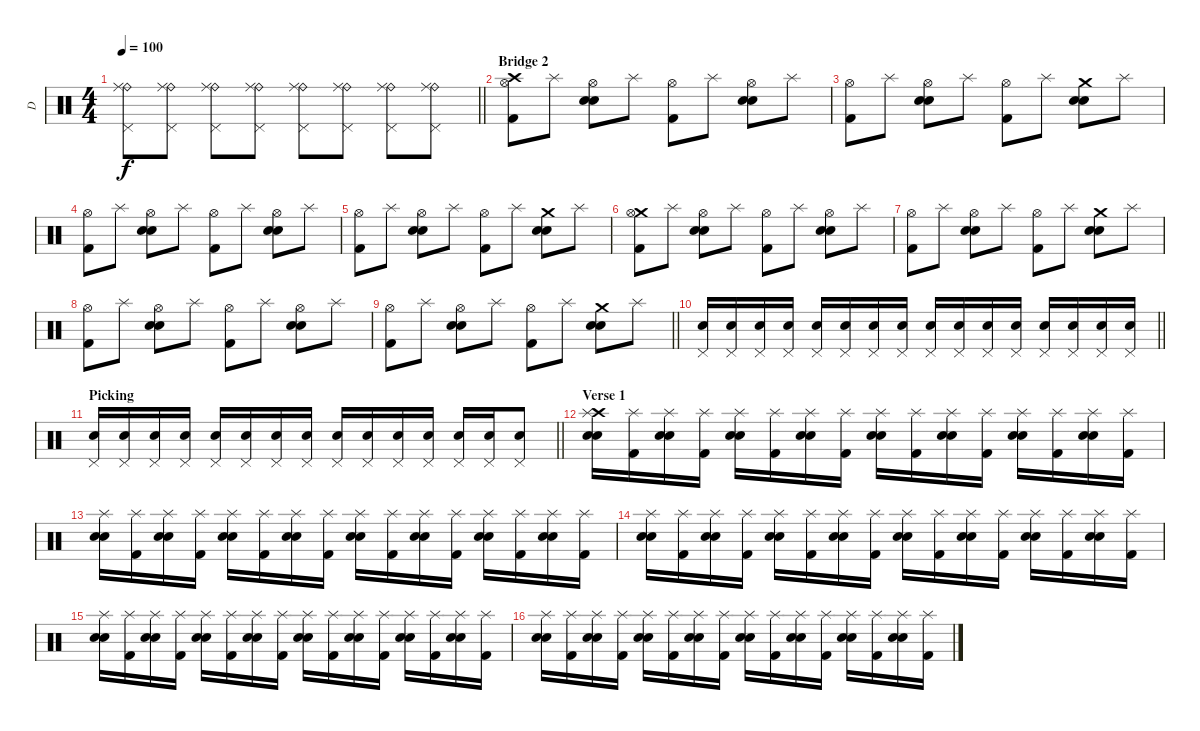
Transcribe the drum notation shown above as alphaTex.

\track ("D" "D") {instrument percussion}
\staff {score}
\articulation defaults
\ts (4 4)
\tempo 100
\clef neutral
\barLineRight lightlight
\ks c
("Ride (bell)" "Pedal Hi-Hat (hit)" "Ride (middle)").8{dy f} ("Ride (bell)" "Pedal Hi-Hat (hit)" "Ride (middle)").8 ("Ride (bell)" "Pedal Hi-Hat (hit)" "Ride (middle)").8 ("Ride (bell)" "Pedal Hi-Hat (hit)" "Ride (middle)").8 ("Ride (bell)" "Pedal Hi-Hat (hit)" "Ride (middle)").8 ("Ride (bell)" "Pedal Hi-Hat (hit)" "Ride (middle)").8 ("Ride (bell)" "Pedal Hi-Hat (hit)" "Ride (middle)").8 ("Ride (bell)" "Pedal Hi-Hat (hit)" "Ride (middle)").8 |
\section ("" "Bridge 2")
("Crash high (hit)" "Kick (hit) 2" "Hi-Hat (open)").8 "Splash (hit)".8 ("Electric Snare (hit)" "Electric Snare (hit)" "Hi-Hat (open)").8 "Splash (hit)".8 ("Kick (hit) 2" "Hi-Hat (open)").8 "Splash (hit)".8 ("Electric Snare (hit)" "Electric Snare (hit)" "Hi-Hat (open)").8 "Splash (hit)".8 |
("Kick (hit) 2" "Hi-Hat (open)").8 "Splash (hit)".8 ("Electric Snare (hit)" "Electric Snare (hit)" "Hi-Hat (open)").8 "Splash (hit)".8 ("Kick (hit) 2" "Hi-Hat (open)").8 "Splash (hit)".8 ("Crash medium (hit)" "Electric Snare (hit)" "Electric Snare (hit)").8 "Splash (hit)".8 |
("Kick (hit) 2" "Hi-Hat (open)").8 "Splash (hit)".8 ("Electric Snare (hit)" "Electric Snare (hit)" "Hi-Hat (open)").8 "Splash (hit)".8 ("Kick (hit) 2" "Hi-Hat (open)").8 "Splash (hit)".8 ("Electric Snare (hit)" "Electric Snare (hit)" "Hi-Hat (open)").8 "Splash (hit)".8 |
("Kick (hit) 2" "Hi-Hat (open)").8 "Splash (hit)".8 ("Electric Snare (hit)" "Electric Snare (hit)" "Hi-Hat (open)").8 "Splash (hit)".8 ("Kick (hit) 2" "Hi-Hat (open)").8 "Splash (hit)".8 ("Crash medium (hit)" "Electric Snare (hit)" "Electric Snare (hit)").8 "Splash (hit)".8 |
("Crash medium (hit)" "Kick (hit) 2" "Hi-Hat (open)").8 "Splash (hit)".8 ("Electric Snare (hit)" "Electric Snare (hit)" "Hi-Hat (open)").8 "Splash (hit)".8 ("Kick (hit) 2" "Hi-Hat (open)").8 "Splash (hit)".8 ("Electric Snare (hit)" "Electric Snare (hit)" "Hi-Hat (open)").8 "Splash (hit)".8 |
("Kick (hit) 2" "Hi-Hat (open)").8 "Splash (hit)".8 ("Electric Snare (hit)" "Electric Snare (hit)" "Hi-Hat (open)").8 "Splash (hit)".8 ("Kick (hit) 2" "Hi-Hat (open)").8 "Splash (hit)".8 ("Crash medium (hit)" "Electric Snare (hit)" "Electric Snare (hit)").8 "Splash (hit)".8 |
("Kick (hit) 2" "Hi-Hat (open)").8 "Splash (hit)".8 ("Electric Snare (hit)" "Electric Snare (hit)" "Hi-Hat (open)").8 "Splash (hit)".8 ("Kick (hit) 2" "Hi-Hat (open)").8 "Splash (hit)".8 ("Electric Snare (hit)" "Electric Snare (hit)" "Hi-Hat (open)").8 "Splash (hit)".8 |
\barLineRight lightlight
("Kick (hit) 2" "Hi-Hat (open)").8 "Splash (hit)".8 ("Electric Snare (hit)" "Electric Snare (hit)" "Hi-Hat (open)").8 "Splash (hit)".8 ("Kick (hit) 2" "Hi-Hat (open)").8 "Splash (hit)".8 ("Crash medium (hit)" "Electric Snare (hit)" "Electric Snare (hit)").8 "Splash (hit)".8{volume 0} |
\barLineRight lightlight
("Electric Snare (hit)" "Pedal Hi-Hat (hit)").16{volume 13} ("Electric Snare (hit)" "Pedal Hi-Hat (hit)").16 ("Electric Snare (hit)" "Pedal Hi-Hat (hit)").16 ("Electric Snare (hit)" "Pedal Hi-Hat (hit)").16 ("Electric Snare (hit)" "Pedal Hi-Hat (hit)").16 ("Electric Snare (hit)" "Pedal Hi-Hat (hit)").16 ("Electric Snare (hit)" "Pedal Hi-Hat (hit)").16 ("Electric Snare (hit)" "Pedal Hi-Hat (hit)").16 ("Electric Snare (hit)" "Pedal Hi-Hat (hit)").16 ("Electric Snare (hit)" "Pedal Hi-Hat (hit)").16 ("Electric Snare (hit)" "Pedal Hi-Hat (hit)").16 ("Electric Snare (hit)" "Pedal Hi-Hat (hit)").16 ("Electric Snare (hit)" "Pedal Hi-Hat (hit)").16 ("Electric Snare (hit)" "Pedal Hi-Hat (hit)").16 ("Electric Snare (hit)" "Pedal Hi-Hat (hit)").16 ("Electric Snare (hit)" "Pedal Hi-Hat (hit)").16 |
\section ("" "Picking")
\barLineRight lightlight
("Electric Snare (hit)" "Pedal Hi-Hat (hit)").16 ("Electric Snare (hit)" "Pedal Hi-Hat (hit)").16 ("Electric Snare (hit)" "Pedal Hi-Hat (hit)").16 ("Electric Snare (hit)" "Pedal Hi-Hat (hit)").16 ("Electric Snare (hit)" "Pedal Hi-Hat (hit)").16 ("Electric Snare (hit)" "Pedal Hi-Hat (hit)").16 ("Electric Snare (hit)" "Pedal Hi-Hat (hit)").16 ("Electric Snare (hit)" "Pedal Hi-Hat (hit)").16 ("Electric Snare (hit)" "Pedal Hi-Hat (hit)").16 ("Electric Snare (hit)" "Pedal Hi-Hat (hit)").16 ("Electric Snare (hit)" "Pedal Hi-Hat (hit)").16 ("Electric Snare (hit)" "Pedal Hi-Hat (hit)").16 ("Electric Snare (hit)" "Pedal Hi-Hat (hit)").16 ("Electric Snare (hit)" "Pedal Hi-Hat (hit)").16 ("Electric Snare (hit)" "Pedal Hi-Hat (hit)").8 |
\section ("" "Verse 1")
("Crash high (hit)" "Electric Snare (hit)" "Electric Snare (hit)" "Splash (hit)").16 ("Kick (hit) 2" "Splash (hit)").16 ("Electric Snare (hit)" "Electric Snare (hit)" "Splash (hit)").16 ("Kick (hit) 2" "Splash (hit)").16 ("Electric Snare (hit)" "Electric Snare (hit)" "Splash (hit)").16 ("Kick (hit) 2" "Splash (hit)").16 ("Electric Snare (hit)" "Electric Snare (hit)" "Splash (hit)").16 ("Kick (hit) 2" "Splash (hit)").16 ("Electric Snare (hit)" "Electric Snare (hit)" "Splash (hit)").16 ("Kick (hit) 2" "Splash (hit)").16 ("Electric Snare (hit)" "Electric Snare (hit)" "Splash (hit)").16 ("Kick (hit) 2" "Splash (hit)").16 ("Electric Snare (hit)" "Electric Snare (hit)" "Splash (hit)").16 ("Kick (hit) 2" "Splash (hit)").16 ("Electric Snare (hit)" "Electric Snare (hit)" "Splash (hit)").16 ("Kick (hit) 2" "Splash (hit)").16 |
("Electric Snare (hit)" "Electric Snare (hit)" "Splash (hit)").16 ("Kick (hit) 2" "Splash (hit)").16 ("Electric Snare (hit)" "Electric Snare (hit)" "Splash (hit)").16 ("Kick (hit) 2" "Splash (hit)").16 ("Electric Snare (hit)" "Electric Snare (hit)" "Splash (hit)").16 ("Kick (hit) 2" "Splash (hit)").16 ("Electric Snare (hit)" "Electric Snare (hit)" "Splash (hit)").16 ("Kick (hit) 2" "Splash (hit)").16 ("Electric Snare (hit)" "Electric Snare (hit)" "Splash (hit)").16 ("Kick (hit) 2" "Splash (hit)").16 ("Electric Snare (hit)" "Electric Snare (hit)" "Splash (hit)").16 ("Kick (hit) 2" "Splash (hit)").16 ("Electric Snare (hit)" "Electric Snare (hit)" "Splash (hit)").16 ("Kick (hit) 2" "Splash (hit)").16 ("Electric Snare (hit)" "Electric Snare (hit)" "Splash (hit)").16 ("Kick (hit) 2" "Splash (hit)").16 |
("Electric Snare (hit)" "Electric Snare (hit)" "Splash (hit)").16 ("Kick (hit) 2" "Splash (hit)").16 ("Electric Snare (hit)" "Electric Snare (hit)" "Splash (hit)").16 ("Kick (hit) 2" "Splash (hit)").16 ("Electric Snare (hit)" "Electric Snare (hit)" "Splash (hit)").16 ("Kick (hit) 2" "Splash (hit)").16 ("Electric Snare (hit)" "Electric Snare (hit)" "Splash (hit)").16 ("Kick (hit) 2" "Splash (hit)").16 ("Electric Snare (hit)" "Electric Snare (hit)" "Splash (hit)").16 ("Kick (hit) 2" "Splash (hit)").16 ("Electric Snare (hit)" "Electric Snare (hit)" "Splash (hit)").16 ("Kick (hit) 2" "Splash (hit)").16 ("Electric Snare (hit)" "Electric Snare (hit)" "Splash (hit)").16 ("Kick (hit) 2" "Splash (hit)").16 ("Electric Snare (hit)" "Electric Snare (hit)" "Splash (hit)").16 ("Kick (hit) 2" "Splash (hit)").16 |
("Electric Snare (hit)" "Electric Snare (hit)" "Splash (hit)").16 ("Kick (hit) 2" "Splash (hit)").16 ("Electric Snare (hit)" "Electric Snare (hit)" "Splash (hit)").16 ("Kick (hit) 2" "Splash (hit)").16 ("Electric Snare (hit)" "Electric Snare (hit)" "Splash (hit)").16 ("Kick (hit) 2" "Splash (hit)").16 ("Electric Snare (hit)" "Electric Snare (hit)" "Splash (hit)").16 ("Kick (hit) 2" "Splash (hit)").16 ("Electric Snare (hit)" "Electric Snare (hit)" "Splash (hit)").16 ("Kick (hit) 2" "Splash (hit)").16 ("Electric Snare (hit)" "Electric Snare (hit)" "Splash (hit)").16 ("Kick (hit) 2" "Splash (hit)").16 ("Electric Snare (hit)" "Electric Snare (hit)" "Splash (hit)").16 ("Kick (hit) 2" "Splash (hit)").16 ("Electric Snare (hit)" "Electric Snare (hit)" "Splash (hit)").16 ("Kick (hit) 2" "Splash (hit)").16 |
("Electric Snare (hit)" "Electric Snare (hit)" "Splash (hit)").16 ("Kick (hit) 2" "Splash (hit)").16 ("Electric Snare (hit)" "Electric Snare (hit)" "Splash (hit)").16 ("Kick (hit) 2" "Splash (hit)").16 ("Electric Snare (hit)" "Electric Snare (hit)" "Splash (hit)").16 ("Kick (hit) 2" "Splash (hit)").16 ("Electric Snare (hit)" "Electric Snare (hit)" "Splash (hit)").16 ("Kick (hit) 2" "Splash (hit)").16 ("Electric Snare (hit)" "Electric Snare (hit)" "Splash (hit)").16 ("Kick (hit) 2" "Splash (hit)").16 ("Electric Snare (hit)" "Electric Snare (hit)" "Splash (hit)").16 ("Kick (hit) 2" "Splash (hit)").16 ("Electric Snare (hit)" "Electric Snare (hit)" "Splash (hit)").16 ("Kick (hit) 2" "Splash (hit)").16 ("Electric Snare (hit)" "Electric Snare (hit)" "Splash (hit)").16 ("Kick (hit) 2" "Splash (hit)").16
